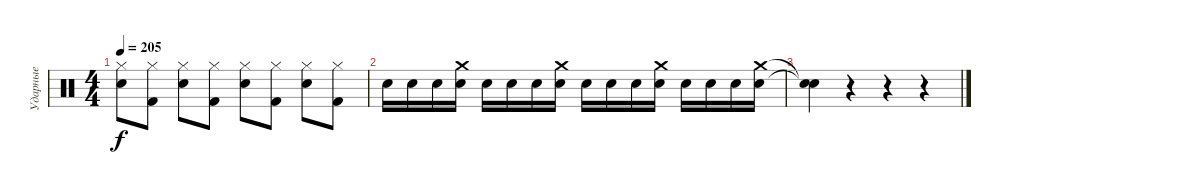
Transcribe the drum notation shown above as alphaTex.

\track ("Ударные" "Ударные") {instrument percussion}
\staff {score}
\articulation defaults
\ts (4 4)
\tempo 205
\clef neutral
\ks c
("Electric Snare (hit)" "Hi-Hat (closed)").8{dy f} ("Kick (hit) 2" "Hi-Hat (closed)").8 ("Electric Snare (hit)" "Hi-Hat (closed)").8 ("Kick (hit) 2" "Hi-Hat (closed)").8 ("Electric Snare (hit)" "Hi-Hat (closed)").8 ("Kick (hit) 2" "Hi-Hat (closed)").8 ("Electric Snare (hit)" "Hi-Hat (closed)").8 ("Kick (hit) 2" "Hi-Hat (closed)").8 |
"Snare (hit) 2".16 "Electric Snare (hit)".16 "Snare (hit) 2".16 ("Electric Snare (hit)" "Crash medium (hit)").16 "Snare (hit) 2".16 "Electric Snare (hit)".16 "Snare (hit) 2".16 ("Electric Snare (hit)" "Crash medium (hit)").16 "Snare (hit) 2".16 "Electric Snare (hit)".16 "Snare (hit) 2".16 ("Electric Snare (hit)" "Crash medium (hit)").16 "Snare (hit) 2".16 "Electric Snare (hit)".16 "Snare (hit) 2".16 ("Electric Snare (hit)" "Crash medium (hit)").16 |
("Snare (hit)"{t} "Snare (hit)"{t}).4 r.4 r.4 r.4
